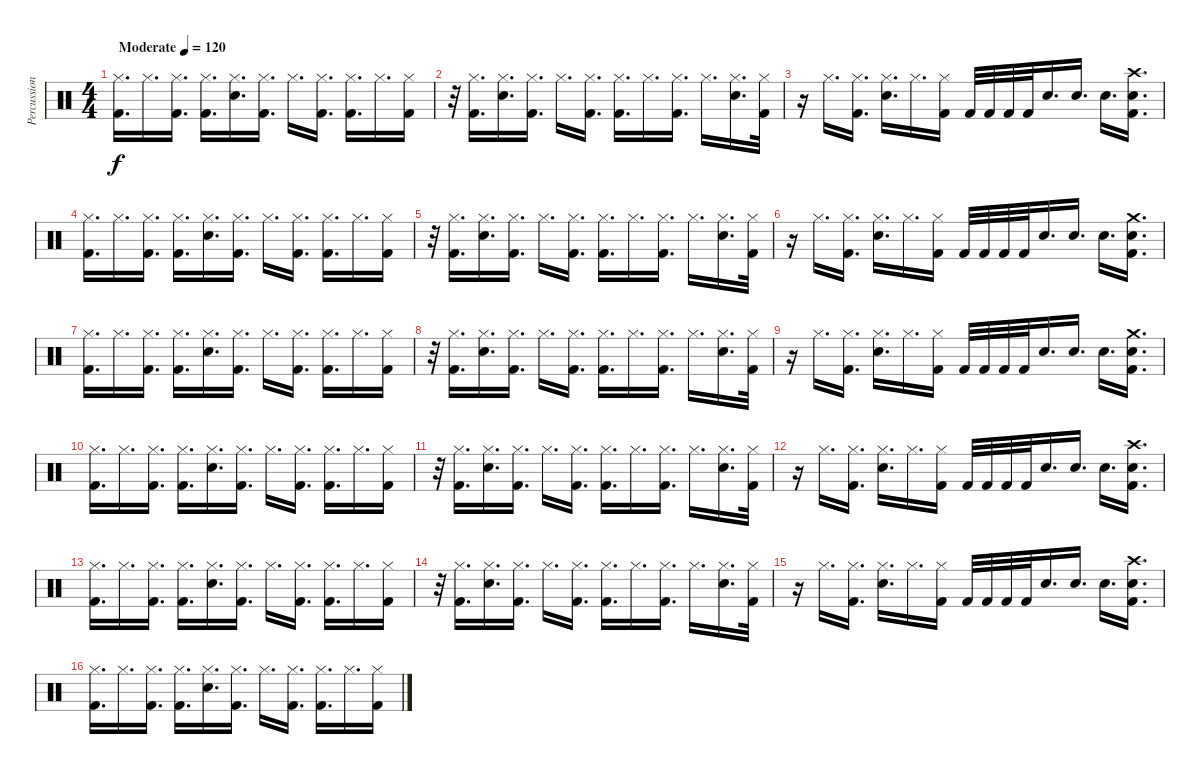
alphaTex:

\track ("Percussion" "Percussion") {instrument percussion}
\staff {score}
\articulation defaults
\ts (4 4)
\tempo (120 "Moderate")
\clef neutral
\ks c
("Hi-Hat (closed)" "Kick (hit) 2").16{d dy f} "Hi-Hat (closed)".16{d} ("Hi-Hat (closed)" "Kick (hit) 2").16{d} ("Hi-Hat (closed)" "Kick (hit) 2").16{d} ("Hi-Hat (closed)" "Electric Snare (hit)").16{d} ("Hi-Hat (closed)" "Kick (hit) 2").16{d} "Hi-Hat (closed)".16{d} ("Hi-Hat (closed)" "Kick (hit) 2").16{d} ("Hi-Hat (closed)" "Kick (hit) 2").16{d} "Hi-Hat (closed)".16{d} ("Hi-Hat (closed)" "Kick (hit) 2").16 |
r.32 ("Hi-Hat (closed)" "Kick (hit) 2").16{d} ("Hi-Hat (closed)" "Electric Snare (hit)").16{d} ("Hi-Hat (closed)" "Kick (hit) 2").16{d} "Hi-Hat (closed)".16{d} ("Hi-Hat (closed)" "Kick (hit) 2").16{d} ("Hi-Hat (closed)" "Kick (hit) 2").16{d} "Hi-Hat (closed)".16{d} ("Hi-Hat (closed)" "Kick (hit) 2").16{d} "Hi-Hat (closed)".16{d} ("Hi-Hat (closed)" "Electric Snare (hit)").16{d} ("Hi-Hat (closed)" "Kick (hit) 2").32 |
r.16 "Hi-Hat (closed)".16{d} ("Hi-Hat (closed)" "Kick (hit) 2").16{d} ("Hi-Hat (closed)" "Electric Snare (hit)").16{d} "Hi-Hat (closed)".16{d} ("Hi-Hat (closed)" "Kick (hit) 2").16 "Kick (hit) 2".32 "Kick (hit) 2".32 "Kick (hit) 2".32 "Kick (hit) 2".32 "Electric Snare (hit)".16{d} "Electric Snare (hit)".16{d} "Electric Snare (hit)".16{d} ("Crash high (hit)" "Electric Snare (hit)" "Kick (hit) 2").16{d} |
("Hi-Hat (closed)" "Kick (hit) 2").16{d} "Hi-Hat (closed)".16{d} ("Hi-Hat (closed)" "Kick (hit) 2").16{d} ("Hi-Hat (closed)" "Kick (hit) 2").16{d} ("Hi-Hat (closed)" "Electric Snare (hit)").16{d} ("Hi-Hat (closed)" "Kick (hit) 2").16{d} "Hi-Hat (closed)".16{d} ("Hi-Hat (closed)" "Kick (hit) 2").16{d} ("Hi-Hat (closed)" "Kick (hit) 2").16{d} "Hi-Hat (closed)".16{d} ("Hi-Hat (closed)" "Kick (hit) 2").16 |
r.32 ("Hi-Hat (closed)" "Kick (hit) 2").16{d} ("Hi-Hat (closed)" "Electric Snare (hit)").16{d} ("Hi-Hat (closed)" "Kick (hit) 2").16{d} "Hi-Hat (closed)".16{d} ("Hi-Hat (closed)" "Kick (hit) 2").16{d} ("Hi-Hat (closed)" "Kick (hit) 2").16{d} "Hi-Hat (closed)".16{d} ("Hi-Hat (closed)" "Kick (hit) 2").16{d} "Hi-Hat (closed)".16{d} ("Hi-Hat (closed)" "Electric Snare (hit)").16{d} ("Hi-Hat (closed)" "Kick (hit) 2").32 |
r.16 "Hi-Hat (closed)".16{d} ("Hi-Hat (closed)" "Kick (hit) 2").16{d} ("Hi-Hat (closed)" "Electric Snare (hit)").16{d} "Hi-Hat (closed)".16{d} ("Hi-Hat (closed)" "Kick (hit) 2").16 "Kick (hit) 2".32 "Kick (hit) 2".32 "Kick (hit) 2".32 "Kick (hit) 2".32 "Electric Snare (hit)".16{d} "Electric Snare (hit)".16{d} "Electric Snare (hit)".16{d} ("Crash medium (hit)" "Electric Snare (hit)" "Kick (hit) 2").16{d} |
("Hi-Hat (closed)" "Kick (hit) 2").16{d} "Hi-Hat (closed)".16{d} ("Hi-Hat (closed)" "Kick (hit) 2").16{d} ("Hi-Hat (closed)" "Kick (hit) 2").16{d} ("Hi-Hat (closed)" "Electric Snare (hit)").16{d} ("Hi-Hat (closed)" "Kick (hit) 2").16{d} "Hi-Hat (closed)".16{d} ("Hi-Hat (closed)" "Kick (hit) 2").16{d} ("Hi-Hat (closed)" "Kick (hit) 2").16{d} "Hi-Hat (closed)".16{d} ("Hi-Hat (closed)" "Kick (hit) 2").16 |
r.32 ("Hi-Hat (closed)" "Kick (hit) 2").16{d} ("Hi-Hat (closed)" "Electric Snare (hit)").16{d} ("Hi-Hat (closed)" "Kick (hit) 2").16{d} "Hi-Hat (closed)".16{d} ("Hi-Hat (closed)" "Kick (hit) 2").16{d} ("Hi-Hat (closed)" "Kick (hit) 2").16{d} "Hi-Hat (closed)".16{d} ("Hi-Hat (closed)" "Kick (hit) 2").16{d} "Hi-Hat (closed)".16{d} ("Hi-Hat (closed)" "Electric Snare (hit)").16{d} ("Hi-Hat (closed)" "Kick (hit) 2").32 |
r.16 "Hi-Hat (closed)".16{d} ("Hi-Hat (closed)" "Kick (hit) 2").16{d} ("Hi-Hat (closed)" "Electric Snare (hit)").16{d} "Hi-Hat (closed)".16{d} ("Hi-Hat (closed)" "Kick (hit) 2").16 "Kick (hit) 2".32 "Kick (hit) 2".32 "Kick (hit) 2".32 "Kick (hit) 2".32 "Electric Snare (hit)".16{d} "Electric Snare (hit)".16{d} "Electric Snare (hit)".16{d} ("Crash medium (hit)" "Electric Snare (hit)" "Kick (hit) 2").16{d} |
("Hi-Hat (closed)" "Kick (hit) 2").16{d} "Hi-Hat (closed)".16{d} ("Hi-Hat (closed)" "Kick (hit) 2").16{d} ("Hi-Hat (closed)" "Kick (hit) 2").16{d} ("Hi-Hat (closed)" "Electric Snare (hit)").16{d} ("Hi-Hat (closed)" "Kick (hit) 2").16{d} "Hi-Hat (closed)".16{d} ("Hi-Hat (closed)" "Kick (hit) 2").16{d} ("Hi-Hat (closed)" "Kick (hit) 2").16{d} "Hi-Hat (closed)".16{d} ("Hi-Hat (closed)" "Kick (hit) 2").16 |
r.32 ("Hi-Hat (closed)" "Kick (hit) 2").16{d} ("Hi-Hat (closed)" "Electric Snare (hit)").16{d} ("Hi-Hat (closed)" "Kick (hit) 2").16{d} "Hi-Hat (closed)".16{d} ("Hi-Hat (closed)" "Kick (hit) 2").16{d} ("Hi-Hat (closed)" "Kick (hit) 2").16{d} "Hi-Hat (closed)".16{d} ("Hi-Hat (closed)" "Kick (hit) 2").16{d} "Hi-Hat (closed)".16{d} ("Hi-Hat (closed)" "Electric Snare (hit)").16{d} ("Hi-Hat (closed)" "Kick (hit) 2").32 |
r.16 "Hi-Hat (closed)".16{d} ("Hi-Hat (closed)" "Kick (hit) 2").16{d} ("Hi-Hat (closed)" "Electric Snare (hit)").16{d} "Hi-Hat (closed)".16{d} ("Hi-Hat (closed)" "Kick (hit) 2").16 "Kick (hit) 2".32 "Kick (hit) 2".32 "Kick (hit) 2".32 "Kick (hit) 2".32 "Electric Snare (hit)".16{d} "Electric Snare (hit)".16{d} "Electric Snare (hit)".16{d} ("Crash high (hit)" "Electric Snare (hit)" "Kick (hit) 2").16{d} |
("Hi-Hat (closed)" "Kick (hit) 2").16{d} "Hi-Hat (closed)".16{d} ("Hi-Hat (closed)" "Kick (hit) 2").16{d} ("Hi-Hat (closed)" "Kick (hit) 2").16{d} ("Hi-Hat (closed)" "Electric Snare (hit)").16{d} ("Hi-Hat (closed)" "Kick (hit) 2").16{d} "Hi-Hat (closed)".16{d} ("Hi-Hat (closed)" "Kick (hit) 2").16{d} ("Hi-Hat (closed)" "Kick (hit) 2").16{d} "Hi-Hat (closed)".16{d} ("Hi-Hat (closed)" "Kick (hit) 2").16 |
r.32 ("Hi-Hat (closed)" "Kick (hit) 2").16{d} ("Hi-Hat (closed)" "Electric Snare (hit)").16{d} ("Hi-Hat (closed)" "Kick (hit) 2").16{d} "Hi-Hat (closed)".16{d} ("Hi-Hat (closed)" "Kick (hit) 2").16{d} ("Hi-Hat (closed)" "Kick (hit) 2").16{d} "Hi-Hat (closed)".16{d} ("Hi-Hat (closed)" "Kick (hit) 2").16{d} "Hi-Hat (closed)".16{d} ("Hi-Hat (closed)" "Electric Snare (hit)").16{d} ("Hi-Hat (closed)" "Kick (hit) 2").32 |
r.16 "Hi-Hat (closed)".16{d} ("Hi-Hat (closed)" "Kick (hit) 2").16{d} ("Hi-Hat (closed)" "Electric Snare (hit)").16{d} "Hi-Hat (closed)".16{d} ("Hi-Hat (closed)" "Kick (hit) 2").16 "Kick (hit) 2".32 "Kick (hit) 2".32 "Kick (hit) 2".32 "Kick (hit) 2".32 "Electric Snare (hit)".16{d} "Electric Snare (hit)".16{d} "Electric Snare (hit)".16{d} ("Crash high (hit)" "Electric Snare (hit)" "Kick (hit) 2").16{d} |
("Hi-Hat (closed)" "Kick (hit) 2").16{d} "Hi-Hat (closed)".16{d} ("Hi-Hat (closed)" "Kick (hit) 2").16{d} ("Hi-Hat (closed)" "Kick (hit) 2").16{d} ("Hi-Hat (closed)" "Electric Snare (hit)").16{d} ("Hi-Hat (closed)" "Kick (hit) 2").16{d} "Hi-Hat (closed)".16{d} ("Hi-Hat (closed)" "Kick (hit) 2").16{d} ("Hi-Hat (closed)" "Kick (hit) 2").16{d} "Hi-Hat (closed)".16{d} ("Hi-Hat (closed)" "Kick (hit) 2").16
